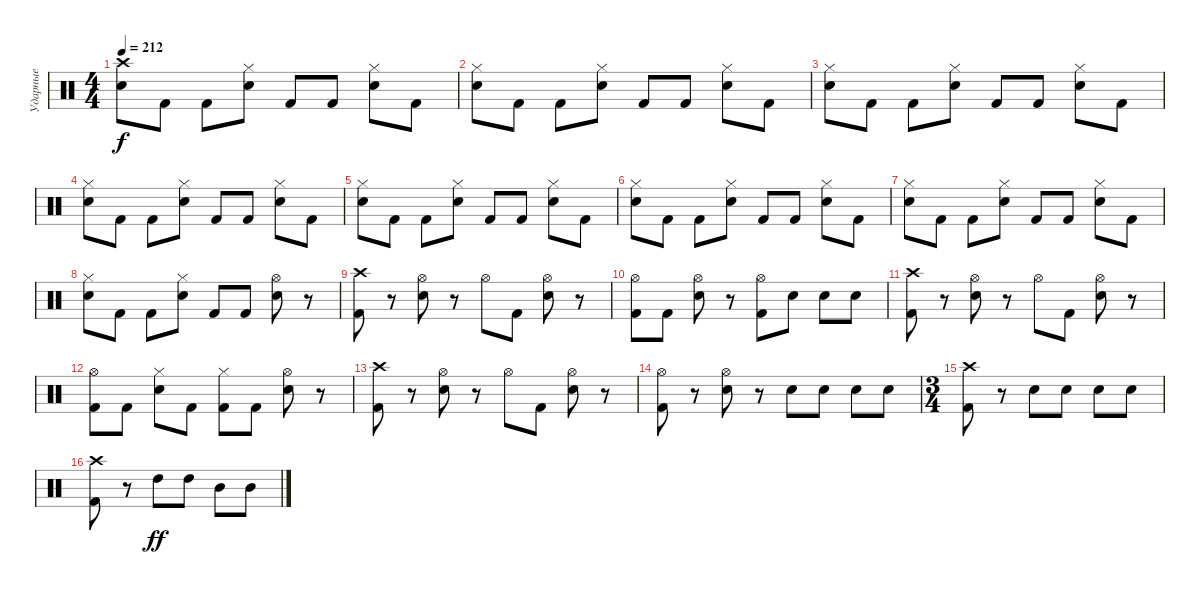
\track ("Ударные" "Ударные") {instrument percussion}
\staff {score}
\articulation defaults
\ts (4 4)
\tempo 212
\clef neutral
\ks c
("Crash high (hit)" "Electric Snare (hit)").8{dy f} "Kick (hit) 2".8 "Kick (hit) 2".8 ("Hi-Hat (closed)" "Electric Snare (hit)").8 "Kick (hit) 2".8 "Kick (hit) 2".8 ("Hi-Hat (closed)" "Electric Snare (hit)").8 "Kick (hit) 2".8 |
("Hi-Hat (closed)" "Electric Snare (hit)").8 "Kick (hit) 2".8 "Kick (hit) 2".8 ("Hi-Hat (closed)" "Electric Snare (hit)").8 "Kick (hit) 2".8 "Kick (hit) 2".8 ("Hi-Hat (closed)" "Electric Snare (hit)").8 "Kick (hit) 2".8 |
("Hi-Hat (closed)" "Electric Snare (hit)").8 "Kick (hit) 2".8 "Kick (hit) 2".8 ("Hi-Hat (closed)" "Electric Snare (hit)").8 "Kick (hit) 2".8 "Kick (hit) 2".8 ("Hi-Hat (closed)" "Electric Snare (hit)").8 "Kick (hit) 2".8 |
("Hi-Hat (closed)" "Electric Snare (hit)").8 "Kick (hit) 2".8 "Kick (hit) 2".8 ("Hi-Hat (closed)" "Electric Snare (hit)").8 "Kick (hit) 2".8 "Kick (hit) 2".8 ("Hi-Hat (closed)" "Electric Snare (hit)").8 "Kick (hit) 2".8 |
("Hi-Hat (closed)" "Electric Snare (hit)").8 "Kick (hit) 2".8 "Kick (hit) 2".8 ("Hi-Hat (closed)" "Electric Snare (hit)").8 "Kick (hit) 2".8 "Kick (hit) 2".8 ("Hi-Hat (closed)" "Electric Snare (hit)").8 "Kick (hit) 2".8 |
("Hi-Hat (closed)" "Electric Snare (hit)").8 "Kick (hit) 2".8 "Kick (hit) 2".8 ("Hi-Hat (closed)" "Electric Snare (hit)").8 "Kick (hit) 2".8 "Kick (hit) 2".8 ("Hi-Hat (closed)" "Electric Snare (hit)").8 "Kick (hit) 2".8 |
("Hi-Hat (closed)" "Electric Snare (hit)").8 "Kick (hit) 2".8 "Kick (hit) 2".8 ("Hi-Hat (closed)" "Electric Snare (hit)").8 "Kick (hit) 2".8 "Kick (hit) 2".8 ("Hi-Hat (closed)" "Electric Snare (hit)").8 "Kick (hit) 2".8 |
("Hi-Hat (closed)" "Electric Snare (hit)").8 "Kick (hit) 2".8 "Kick (hit) 2".8 ("Hi-Hat (closed)" "Electric Snare (hit)").8 "Kick (hit) 2".8 "Kick (hit) 2".8 ("Hi-Hat (open)" "Electric Snare (hit)").8 r.8 |
("Crash high (hit)" "Kick (hit) 2").8 r.8 ("Hi-Hat (open)" "Electric Snare (hit)").8 r.8 "Hi-Hat (open)".8 "Kick (hit) 2".8 ("Hi-Hat (open)" "Electric Snare (hit)").8 r.8 |
("Hi-Hat (open)" "Kick (hit) 2").8 "Kick (hit) 2".8 ("Hi-Hat (open)" "Electric Snare (hit)").8 r.8 ("Hi-Hat (open)" "Kick (hit) 2").8 "Electric Snare (hit)".8 "Electric Snare (hit)".8 "Electric Snare (hit)".8 |
("Crash high (hit)" "Kick (hit) 2").8 r.8 ("Hi-Hat (open)" "Electric Snare (hit)").8 r.8 "Hi-Hat (open)".8 "Kick (hit) 2".8 ("Hi-Hat (open)" "Electric Snare (hit)").8 r.8 |
("Hi-Hat (open)" "Kick (hit) 2").8 "Kick (hit) 2".8 ("Hi-Hat (closed)" "Electric Snare (hit)").8 "Kick (hit) 2".8 ("Hi-Hat (closed)" "Kick (hit) 2").8 "Kick (hit) 2".8 ("Hi-Hat (open)" "Electric Snare (hit)").8 r.8 |
("Crash high (hit)" "Kick (hit) 2").8 r.8 ("Hi-Hat (open)" "Electric Snare (hit)").8 r.8 "Hi-Hat (open)".8 "Kick (hit) 2".8 ("Hi-Hat (open)" "Electric Snare (hit)").8 r.8 |
("Hi-Hat (open)" "Kick (hit) 2").8 r.8 ("Hi-Hat (open)" "Electric Snare (hit)").8 r.8 "Electric Snare (hit)".8 "Electric Snare (hit)".8 "Electric Snare (hit)".8 "Electric Snare (hit)".8 |
\ts (3 4)
("Crash high (hit)" "Kick (hit) 2").8 r.8 "Electric Snare (hit)".8 "Electric Snare (hit)".8 "Electric Snare (hit)".8 "Electric Snare (hit)".8 |
("Crash high (hit)" "Kick (hit) 2").8 r.8 "High Tom (hit)".8{dy ff} "High Tom (hit)".8 "Mid Tom (hit)".8 "Mid Tom (hit)".8
